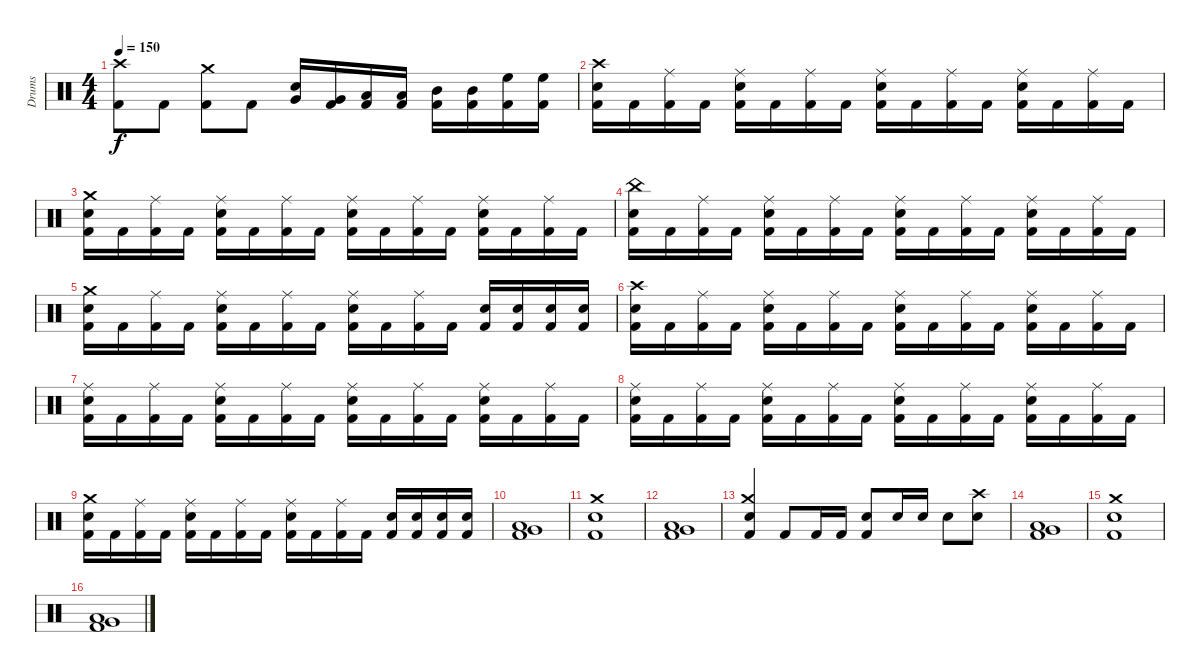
\track ("Drums" "Drums") {instrument percussion}
\staff {score}
\articulation defaults
\ts (4 4)
\tempo 150
\clef neutral
\ks c
("Kick (hit) 2" "Crash high (hit)").8{dy f} "Kick (hit) 2".8 ("Kick (hit) 2" "Crash medium (hit)").8 "Kick (hit) 2".8 ("Snare (hit) 2" "Very Low Tom (hit)").16 ("Kick (hit) 2" "Very Low Tom (hit)").16 ("Kick (hit) 2" "Low Tom (hit)").16 ("Kick (hit) 2" "Low Tom (hit)").16 ("Kick (hit) 2" "Mid Tom (hit)").16 ("Kick (hit) 2" "Mid Tom (hit)").16 ("Kick (hit) 2" "High Floor Tom (hit)").16 ("Kick (hit) 2" "High Floor Tom (hit)").16 |
("Kick (hit) 2" "Snare (hit) 2" "Crash high (hit)").16 "Kick (hit) 2".16 ("Kick (hit) 2" "Ride (middle)").16 "Kick (hit) 2".16 ("Kick (hit) 2" "Snare (hit) 2" "Ride (middle)").16 "Kick (hit) 2".16 ("Kick (hit) 2" "Ride (middle)").16 "Kick (hit) 2".16 ("Kick (hit) 2" "Snare (hit) 2" "Ride (middle)").16 "Kick (hit) 2".16 ("Kick (hit) 2" "Ride (middle)").16 "Kick (hit) 2".16 ("Kick (hit) 2" "Snare (hit) 2" "Ride (middle)").16 "Kick (hit) 2".16 ("Kick (hit) 2" "Ride (middle)").16 "Kick (hit) 2".16 |
("Kick (hit) 2" "Snare (hit) 2" "Crash medium (hit)").16 "Kick (hit) 2".16 ("Kick (hit) 2" "Ride (middle)").16 "Kick (hit) 2".16 ("Kick (hit) 2" "Snare (hit) 2" "Ride (middle)").16 "Kick (hit) 2".16 ("Kick (hit) 2" "Ride (middle)").16 "Kick (hit) 2".16 ("Kick (hit) 2" "Snare (hit) 2" "Ride (middle)").16 "Kick (hit) 2".16 ("Kick (hit) 2" "Ride (middle)").16 "Kick (hit) 2".16 ("Kick (hit) 2" "Snare (hit) 2" "Ride (middle)").16 "Kick (hit) 2".16 ("Kick (hit) 2" "Ride (middle)").16 "Kick (hit) 2".16 |
("Kick (hit) 2" "Snare (hit) 2" "China (hit)").16 "Kick (hit) 2".16 ("Kick (hit) 2" "Ride (middle)").16 "Kick (hit) 2".16 ("Kick (hit) 2" "Snare (hit) 2" "Ride (middle)").16 "Kick (hit) 2".16 ("Kick (hit) 2" "Ride (middle)").16 "Kick (hit) 2".16 ("Kick (hit) 2" "Snare (hit) 2" "Ride (middle)").16 "Kick (hit) 2".16 ("Kick (hit) 2" "Ride (middle)").16 "Kick (hit) 2".16 ("Kick (hit) 2" "Snare (hit) 2" "Ride (middle)").16 "Kick (hit) 2".16 ("Kick (hit) 2" "Ride (middle)").16 "Kick (hit) 2".16 |
("Kick (hit) 2" "Snare (hit) 2" "Crash medium (hit)").16 "Kick (hit) 2".16 ("Kick (hit) 2" "Ride (middle)").16 "Kick (hit) 2".16 ("Kick (hit) 2" "Snare (hit) 2" "Ride (middle)").16 "Kick (hit) 2".16 ("Kick (hit) 2" "Ride (middle)").16 "Kick (hit) 2".16 ("Kick (hit) 2" "Snare (hit) 2" "Ride (middle)").16 "Kick (hit) 2".16 ("Kick (hit) 2" "Ride (middle)").16 "Kick (hit) 2".16 ("Kick (hit) 2" "Snare (hit) 2").16 ("Kick (hit) 2" "Snare (hit) 2").16 ("Kick (hit) 2" "Snare (hit) 2").16 ("Kick (hit) 2" "Snare (hit) 2").16 |
("Kick (hit) 2" "Snare (hit) 2" "Crash high (hit)").16 "Kick (hit) 2".16 ("Kick (hit) 2" "Ride (middle)").16 "Kick (hit) 2".16 ("Kick (hit) 2" "Snare (hit) 2" "Ride (middle)").16 "Kick (hit) 2".16 ("Kick (hit) 2" "Ride (middle)").16 "Kick (hit) 2".16 ("Kick (hit) 2" "Snare (hit) 2" "Ride (middle)").16 "Kick (hit) 2".16 ("Kick (hit) 2" "Ride (middle)").16 "Kick (hit) 2".16 ("Kick (hit) 2" "Snare (hit) 2" "Ride (middle)").16 "Kick (hit) 2".16 ("Kick (hit) 2" "Ride (middle)").16 "Kick (hit) 2".16 |
("Kick (hit) 2" "Snare (hit) 2" "Ride (middle)").16 "Kick (hit) 2".16 ("Kick (hit) 2" "Ride (middle)").16 "Kick (hit) 2".16 ("Kick (hit) 2" "Snare (hit) 2" "Ride (middle)").16 "Kick (hit) 2".16 ("Kick (hit) 2" "Ride (middle)").16 "Kick (hit) 2".16 ("Kick (hit) 2" "Snare (hit) 2" "Ride (middle)").16 "Kick (hit) 2".16 ("Kick (hit) 2" "Ride (middle)").16 "Kick (hit) 2".16 ("Kick (hit) 2" "Snare (hit) 2" "Ride (middle)").16 "Kick (hit) 2".16 ("Kick (hit) 2" "Ride (middle)").16 "Kick (hit) 2".16 |
("Kick (hit) 2" "Snare (hit) 2" "Ride (middle)").16 "Kick (hit) 2".16 ("Kick (hit) 2" "Ride (middle)").16 "Kick (hit) 2".16 ("Kick (hit) 2" "Snare (hit) 2" "Ride (middle)").16 "Kick (hit) 2".16 ("Kick (hit) 2" "Ride (middle)").16 "Kick (hit) 2".16 ("Kick (hit) 2" "Snare (hit) 2" "Ride (middle)").16 "Kick (hit) 2".16 ("Kick (hit) 2" "Ride (middle)").16 "Kick (hit) 2".16 ("Kick (hit) 2" "Snare (hit) 2" "Ride (middle)").16 "Kick (hit) 2".16 ("Kick (hit) 2" "Ride (middle)").16 "Kick (hit) 2".16 |
("Kick (hit) 2" "Snare (hit) 2" "Crash medium (hit)").16 "Kick (hit) 2".16 ("Kick (hit) 2" "Ride (middle)").16 "Kick (hit) 2".16 ("Kick (hit) 2" "Snare (hit) 2" "Ride (middle)").16 "Kick (hit) 2".16 ("Kick (hit) 2" "Ride (middle)").16 "Kick (hit) 2".16 ("Kick (hit) 2" "Snare (hit) 2" "Ride (middle)").16 "Kick (hit) 2".16 ("Kick (hit) 2" "Ride (middle)").16 "Kick (hit) 2".16 ("Kick (hit) 2" "Snare (hit) 2").16 ("Kick (hit) 2" "Snare (hit) 2").16 ("Kick (hit) 2" "Snare (hit) 2").16 ("Kick (hit) 2" "Snare (hit) 2").16 |
("Kick (hit) 2" "Low Tom (hit)" "Very Low Tom (hit)").1 |
("Kick (hit) 2" "Snare (hit) 2" "Crash medium (hit)").1 |
("Kick (hit) 2" "Low Tom (hit)" "Very Low Tom (hit)").1 |
("Kick (hit) 2" "Snare (hit) 2" "Crash medium (hit)").4 "Kick (hit) 2".8 "Kick (hit) 2".16 "Kick (hit) 2".16 ("Kick (hit) 2" "Snare (hit) 2").8 "Snare (hit) 2".16 "Snare (hit) 2".16 "Snare (hit) 2".8 ("Snare (hit) 2" "Crash high (hit)").8 |
("Kick (hit) 2" "Low Tom (hit)" "Very Low Tom (hit)").1 |
("Kick (hit) 2" "Snare (hit) 2" "Crash medium (hit)").1 |
("Kick (hit) 2" "Low Tom (hit)" "Very Low Tom (hit)").1
